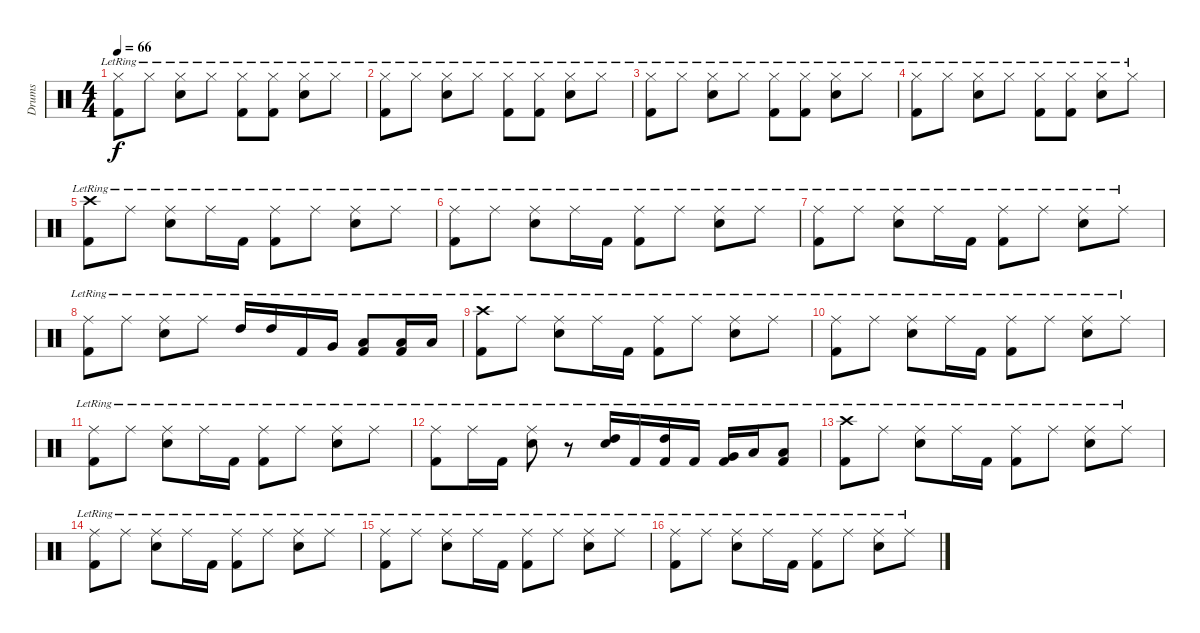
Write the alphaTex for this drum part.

\track ("Drums" "Drums") {instrument percussion}
\staff {score}
\articulation defaults
\ts (4 4)
\tempo 66
\clef neutral
\ks c
("Kick (hit) 2"{lr} "Hi-Hat (closed)"{lr}).8{dy f} "Hi-Hat (closed)"{lr}.8 ("Hi-Hat (closed)"{lr} "Snare (hit) 2"{lr}).8 "Hi-Hat (closed)"{lr}.8 ("Hi-Hat (closed)"{lr} "Kick (hit) 2"{lr}).8 ("Hi-Hat (closed)"{lr} "Kick (hit) 2"{lr}).8 ("Hi-Hat (closed)"{lr} "Snare (hit) 2"{lr}).8 "Hi-Hat (closed)"{lr}.8 |
("Kick (hit) 2"{lr} "Hi-Hat (closed)"{lr}).8 "Hi-Hat (closed)"{lr}.8 ("Hi-Hat (closed)"{lr} "Snare (hit) 2"{lr}).8 "Hi-Hat (closed)"{lr}.8 ("Hi-Hat (closed)"{lr} "Kick (hit) 2"{lr}).8 ("Hi-Hat (closed)"{lr} "Kick (hit) 2"{lr}).8 ("Hi-Hat (closed)"{lr} "Snare (hit) 2"{lr}).8 "Hi-Hat (closed)"{lr}.8 |
("Kick (hit) 2"{lr} "Hi-Hat (closed)"{lr}).8 "Hi-Hat (closed)"{lr}.8 ("Hi-Hat (closed)"{lr} "Snare (hit) 2"{lr}).8 "Hi-Hat (closed)"{lr}.8 ("Hi-Hat (closed)"{lr} "Kick (hit) 2"{lr}).8 ("Hi-Hat (closed)"{lr} "Kick (hit) 2"{lr}).8 ("Hi-Hat (closed)"{lr} "Snare (hit) 2"{lr}).8 "Hi-Hat (closed)"{lr}.8 |
("Kick (hit) 2"{lr} "Hi-Hat (closed)"{lr}).8 "Hi-Hat (closed)"{lr}.8 ("Hi-Hat (closed)"{lr} "Snare (hit) 2"{lr}).8 "Hi-Hat (closed)"{lr}.8 ("Hi-Hat (closed)"{lr} "Kick (hit) 2"{lr}).8 ("Hi-Hat (closed)"{lr} "Kick (hit) 2"{lr}).8 ("Hi-Hat (closed)"{lr} "Snare (hit) 2"{lr}).8 "Hi-Hat (closed)"{lr}.8 |
("Crash high (hit)"{lr} "Kick (hit) 2"{lr}).8 "Ride (middle)"{lr}.8 ("Snare (hit) 2"{lr} "Ride (middle)"{lr}).8 "Ride (middle)"{lr}.16 "Kick (hit) 2"{lr}.16 ("Kick (hit) 2"{lr} "Ride (middle)"{lr}).8 "Ride (middle)"{lr}.8 ("Snare (hit) 2"{lr} "Ride (middle)"{lr}).8 "Ride (middle)"{lr}.8 |
("Ride (middle)"{lr} "Kick (hit) 2"{lr}).8 "Ride (middle)"{lr}.8 ("Snare (hit) 2"{lr} "Ride (middle)"{lr}).8 "Ride (middle)"{lr}.16 "Kick (hit) 2"{lr}.16 ("Kick (hit) 2"{lr} "Ride (middle)"{lr}).8 "Ride (middle)"{lr}.8 ("Snare (hit) 2"{lr} "Ride (middle)"{lr}).8 "Ride (middle)"{lr}.8 |
("Ride (middle)"{lr} "Kick (hit) 2"{lr}).8 "Ride (middle)"{lr}.8 ("Snare (hit) 2"{lr} "Ride (middle)"{lr}).8 "Ride (middle)"{lr}.16 "Kick (hit) 2"{lr}.16 ("Kick (hit) 2"{lr} "Ride (middle)"{lr}).8 "Ride (middle)"{lr}.8 ("Snare (hit) 2"{lr} "Ride (middle)"{lr}).8 "Ride (middle)"{lr}.8 |
("Kick (hit) 2"{lr} "Ride (middle)"{lr}).8 "Ride (middle)"{lr}.8 ("Snare (hit) 2"{lr} "Ride (middle)"{lr}).8 "Ride (middle)"{lr}.8 "High Tom (hit)"{lr}.16 "High Tom (hit)"{lr}.16 "Kick (hit) 2"{lr}.16 "Very Low Tom (hit)"{lr}.16 ("Kick (hit) 2"{lr} "Low Floor Tom (hit)"{lr}).8 ("Low Floor Tom (hit)"{lr} "Kick (hit) 2"{lr}).16 "Low Floor Tom (hit)"{lr}.16 |
("Crash high (hit)"{lr} "Kick (hit) 2"{lr}).8 "Ride (middle)"{lr}.8 ("Snare (hit) 2"{lr} "Ride (middle)"{lr}).8 "Ride (middle)"{lr}.16 "Kick (hit) 2"{lr}.16 ("Kick (hit) 2"{lr} "Ride (middle)"{lr}).8 "Ride (middle)"{lr}.8 ("Snare (hit) 2"{lr} "Ride (middle)"{lr}).8 "Ride (middle)"{lr}.8 |
("Ride (middle)"{lr} "Kick (hit) 2"{lr}).8 "Ride (middle)"{lr}.8 ("Snare (hit) 2"{lr} "Ride (middle)"{lr}).8 "Ride (middle)"{lr}.16 "Kick (hit) 2"{lr}.16 ("Kick (hit) 2"{lr} "Ride (middle)"{lr}).8 "Ride (middle)"{lr}.8 ("Snare (hit) 2"{lr} "Ride (middle)"{lr}).8 "Ride (middle)"{lr}.8 |
("Ride (middle)"{lr} "Kick (hit) 2"{lr}).8 "Ride (middle)"{lr}.8 ("Snare (hit) 2"{lr} "Ride (middle)"{lr}).8 "Ride (middle)"{lr}.16 "Kick (hit) 2"{lr}.16 ("Kick (hit) 2"{lr} "Ride (middle)"{lr}).8 "Ride (middle)"{lr}.8 ("Snare (hit) 2"{lr} "Ride (middle)"{lr}).8 "Ride (middle)"{lr}.8 |
("Kick (hit) 2"{lr} "Ride (middle)"{lr}).8 "Ride (middle)"{lr}.16 "Kick (hit) 2"{lr}.16 ("Snare (hit) 2"{lr} "Ride (middle)"{lr}).8 r.8 ("Snare (hit) 2"{lr} "High Tom (hit)"{lr}).16 "Kick (hit) 2"{lr}.16 ("Kick (hit) 2"{lr} "High Tom (hit)"{lr}).16 "Kick (hit) 2"{lr}.16 ("Kick (hit) 2"{lr} "Very Low Tom (hit)"{lr}).16 "Low Floor Tom (hit)"{lr}.16 ("Kick (hit) 2"{lr} "Low Floor Tom (hit)"{lr}).8 |
("Crash high (hit)"{lr} "Kick (hit) 2"{lr}).8 "Ride (middle)"{lr}.8 ("Snare (hit) 2"{lr} "Ride (middle)"{lr}).8 "Ride (middle)"{lr}.16 "Kick (hit) 2"{lr}.16 ("Kick (hit) 2"{lr} "Ride (middle)"{lr}).8 "Ride (middle)"{lr}.8 ("Snare (hit) 2"{lr} "Ride (middle)"{lr}).8 "Ride (middle)"{lr}.8 |
("Ride (middle)"{lr} "Kick (hit) 2"{lr}).8 "Ride (middle)"{lr}.8 ("Snare (hit) 2"{lr} "Ride (middle)"{lr}).8 "Ride (middle)"{lr}.16 "Kick (hit) 2"{lr}.16 ("Kick (hit) 2"{lr} "Ride (middle)"{lr}).8 "Ride (middle)"{lr}.8 ("Snare (hit) 2"{lr} "Ride (middle)"{lr}).8 "Ride (middle)"{lr}.8 |
("Ride (middle)"{lr} "Kick (hit) 2"{lr}).8 "Ride (middle)"{lr}.8 ("Snare (hit) 2"{lr} "Ride (middle)"{lr}).8 "Ride (middle)"{lr}.16 "Kick (hit) 2"{lr}.16 ("Kick (hit) 2"{lr} "Ride (middle)"{lr}).8 "Ride (middle)"{lr}.8 ("Snare (hit) 2"{lr} "Ride (middle)"{lr}).8 "Ride (middle)"{lr}.8 |
("Ride (middle)"{lr} "Kick (hit) 2"{lr}).8 "Ride (middle)"{lr}.8 ("Snare (hit) 2"{lr} "Ride (middle)"{lr}).8 "Ride (middle)"{lr}.16 "Kick (hit) 2"{lr}.16 ("Kick (hit) 2"{lr} "Ride (middle)"{lr}).8 "Ride (middle)"{lr}.8 ("Snare (hit) 2"{lr} "Ride (middle)"{lr}).8 "Ride (middle)"{lr}.8
